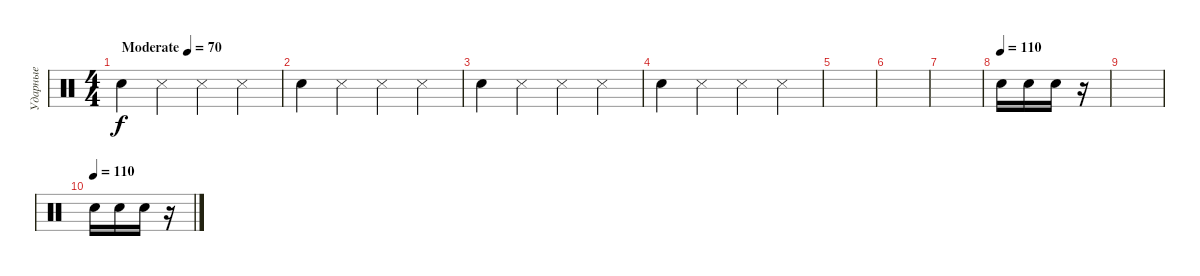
\track ("Ударные" "Ударные") {instrument percussion}
\staff {score}
\articulation defaults
\ts (4 4)
\tempo (70 "Moderate")
\clef neutral
\ks c "Metronome (bell)".4{dy f} "Metronome (hit)".4 "Metronome (hit)".4 "Metronome (hit)".4
|
"Metronome (bell)".4 "Metronome (hit)".4 "Metronome (hit)".4 "Metronome (hit)".4 |
"Metronome (bell)".4 "Metronome (hit)".4 "Metronome (hit)".4 "Metronome (hit)".4 |
"Metronome (bell)".4 "Metronome (hit)".4 "Metronome (hit)".4 "Metronome (hit)".4 |
|
|
|
\tempo 104
\tempo (110)
"Snare (hit)".16 "Snare (hit)".16 "Snare (hit)".16 r.16 |
|
\tempo (110)
"Snare (hit)".16 "Snare (hit)".16 "Snare (hit)".16 r.16
